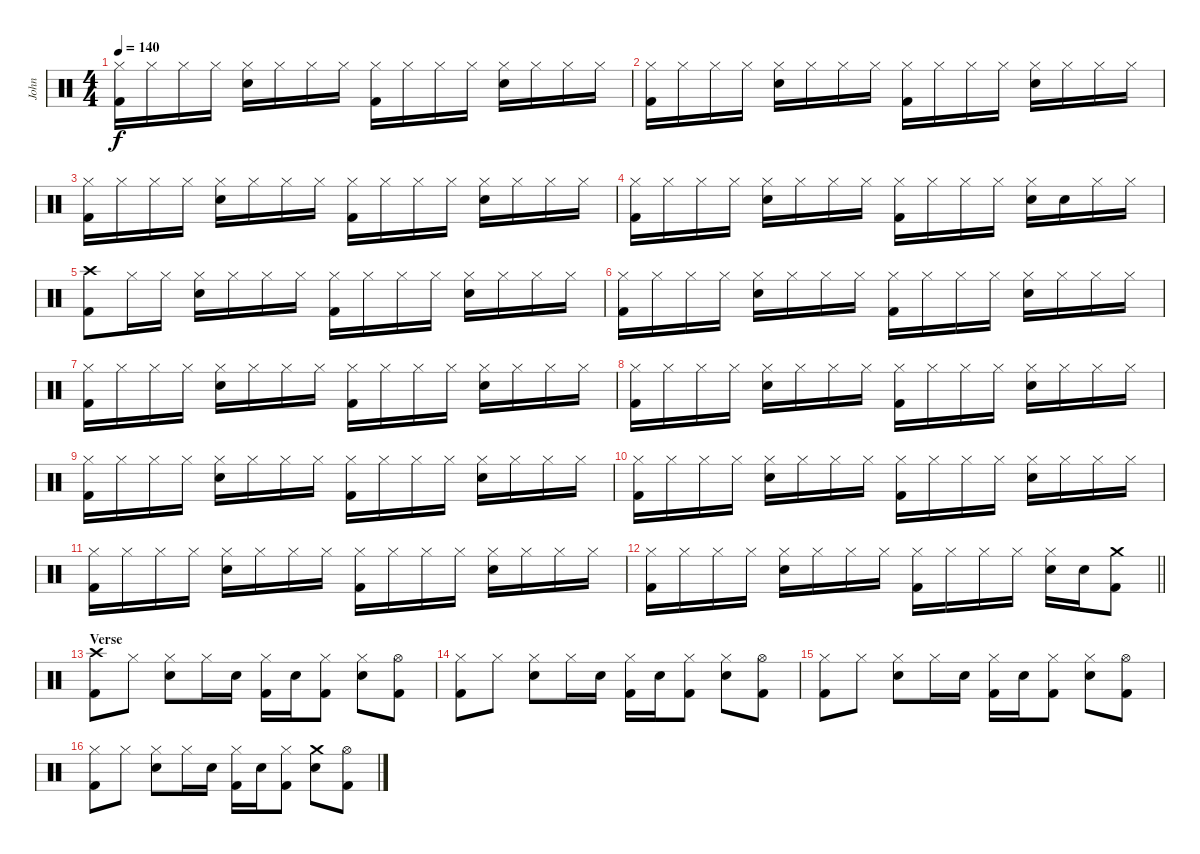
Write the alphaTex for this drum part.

\track ("John" "John") {instrument percussion}
\staff {score}
\articulation defaults
\ts (4 4)
\tempo 140
\clef neutral
\ks c
("Hi-Hat (closed)" "Kick (hit) 2").16{dy f} "Hi-Hat (closed)".16 "Hi-Hat (closed)".16 "Hi-Hat (closed)".16 ("Hi-Hat (closed)" "Electric Snare (hit)").16 "Hi-Hat (closed)".16 "Hi-Hat (closed)".16 "Hi-Hat (closed)".16 ("Hi-Hat (closed)" "Kick (hit) 2").16 "Hi-Hat (closed)".16 "Hi-Hat (closed)".16 "Hi-Hat (closed)".16 ("Hi-Hat (closed)" "Electric Snare (hit)").16 "Hi-Hat (closed)".16 "Hi-Hat (closed)".16 "Hi-Hat (closed)".16 |
("Hi-Hat (closed)" "Kick (hit) 2").16 "Hi-Hat (closed)".16 "Hi-Hat (closed)".16 "Hi-Hat (closed)".16 ("Hi-Hat (closed)" "Electric Snare (hit)").16 "Hi-Hat (closed)".16 "Hi-Hat (closed)".16 "Hi-Hat (closed)".16 ("Hi-Hat (closed)" "Kick (hit) 2").16 "Hi-Hat (closed)".16 "Hi-Hat (closed)".16 "Hi-Hat (closed)".16 ("Hi-Hat (closed)" "Electric Snare (hit)").16 "Hi-Hat (closed)".16 "Hi-Hat (closed)".16 "Hi-Hat (closed)".16 |
("Hi-Hat (closed)" "Kick (hit) 2").16 "Hi-Hat (closed)".16 "Hi-Hat (closed)".16 "Hi-Hat (closed)".16 ("Hi-Hat (closed)" "Electric Snare (hit)").16 "Hi-Hat (closed)".16 "Hi-Hat (closed)".16 "Hi-Hat (closed)".16 ("Hi-Hat (closed)" "Kick (hit) 2").16 "Hi-Hat (closed)".16 "Hi-Hat (closed)".16 "Hi-Hat (closed)".16 ("Hi-Hat (closed)" "Electric Snare (hit)").16 "Hi-Hat (closed)".16 "Hi-Hat (closed)".16 "Hi-Hat (closed)".16 |
("Hi-Hat (closed)" "Kick (hit) 2").16 "Hi-Hat (closed)".16 "Hi-Hat (closed)".16 "Hi-Hat (closed)".16 ("Hi-Hat (closed)" "Electric Snare (hit)").16 "Hi-Hat (closed)".16 "Hi-Hat (closed)".16 "Hi-Hat (closed)".16 ("Hi-Hat (closed)" "Kick (hit) 2").16 "Hi-Hat (closed)".16 "Hi-Hat (closed)".16 "Hi-Hat (closed)".16 ("Hi-Hat (closed)" "Electric Snare (hit)").16 "Electric Snare (hit)".16 "Hi-Hat (closed)".16 "Hi-Hat (closed)".16 |
("Crash high (hit)" "Kick (hit) 2").8 "Hi-Hat (closed)".16 "Hi-Hat (closed)".16 ("Hi-Hat (closed)" "Electric Snare (hit)").16 "Hi-Hat (closed)".16 "Hi-Hat (closed)".16 "Hi-Hat (closed)".16 ("Hi-Hat (closed)" "Kick (hit) 2").16 "Hi-Hat (closed)".16 "Hi-Hat (closed)".16 "Hi-Hat (closed)".16 ("Hi-Hat (closed)" "Electric Snare (hit)").16 "Hi-Hat (closed)".16 "Hi-Hat (closed)".16 "Hi-Hat (closed)".16 |
("Hi-Hat (closed)" "Kick (hit) 2").16 "Hi-Hat (closed)".16 "Hi-Hat (closed)".16 "Hi-Hat (closed)".16 ("Hi-Hat (closed)" "Electric Snare (hit)").16 "Hi-Hat (closed)".16 "Hi-Hat (closed)".16 "Hi-Hat (closed)".16 ("Hi-Hat (closed)" "Kick (hit) 2").16 "Hi-Hat (closed)".16 "Hi-Hat (closed)".16 "Hi-Hat (closed)".16 ("Hi-Hat (closed)" "Electric Snare (hit)").16 "Hi-Hat (closed)".16 "Hi-Hat (closed)".16 "Hi-Hat (closed)".16 |
("Hi-Hat (closed)" "Kick (hit) 2").16 "Hi-Hat (closed)".16 "Hi-Hat (closed)".16 "Hi-Hat (closed)".16 ("Hi-Hat (closed)" "Electric Snare (hit)").16 "Hi-Hat (closed)".16 "Hi-Hat (closed)".16 "Hi-Hat (closed)".16 ("Hi-Hat (closed)" "Kick (hit) 2").16 "Hi-Hat (closed)".16 "Hi-Hat (closed)".16 "Hi-Hat (closed)".16 ("Hi-Hat (closed)" "Electric Snare (hit)").16 "Hi-Hat (closed)".16 "Hi-Hat (closed)".16 "Hi-Hat (closed)".16 |
("Hi-Hat (closed)" "Kick (hit) 2").16 "Hi-Hat (closed)".16 "Hi-Hat (closed)".16 "Hi-Hat (closed)".16 ("Hi-Hat (closed)" "Electric Snare (hit)").16 "Hi-Hat (closed)".16 "Hi-Hat (closed)".16 "Hi-Hat (closed)".16 ("Hi-Hat (closed)" "Kick (hit) 2").16 "Hi-Hat (closed)".16 "Hi-Hat (closed)".16 "Hi-Hat (closed)".16 ("Hi-Hat (closed)" "Electric Snare (hit)").16 "Hi-Hat (closed)".16 "Hi-Hat (closed)".16 "Hi-Hat (closed)".16 |
("Hi-Hat (closed)" "Kick (hit) 2").16 "Hi-Hat (closed)".16 "Hi-Hat (closed)".16 "Hi-Hat (closed)".16 ("Hi-Hat (closed)" "Electric Snare (hit)").16 "Hi-Hat (closed)".16 "Hi-Hat (closed)".16 "Hi-Hat (closed)".16 ("Hi-Hat (closed)" "Kick (hit) 2").16 "Hi-Hat (closed)".16 "Hi-Hat (closed)".16 "Hi-Hat (closed)".16 ("Hi-Hat (closed)" "Electric Snare (hit)").16 "Hi-Hat (closed)".16 "Hi-Hat (closed)".16 "Hi-Hat (closed)".16 |
("Hi-Hat (closed)" "Kick (hit) 2").16 "Hi-Hat (closed)".16 "Hi-Hat (closed)".16 "Hi-Hat (closed)".16 ("Hi-Hat (closed)" "Electric Snare (hit)").16 "Hi-Hat (closed)".16 "Hi-Hat (closed)".16 "Hi-Hat (closed)".16 ("Hi-Hat (closed)" "Kick (hit) 2").16 "Hi-Hat (closed)".16 "Hi-Hat (closed)".16 "Hi-Hat (closed)".16 ("Hi-Hat (closed)" "Electric Snare (hit)").16 "Hi-Hat (closed)".16 "Hi-Hat (closed)".16 "Hi-Hat (closed)".16 |
("Hi-Hat (closed)" "Kick (hit) 2").16 "Hi-Hat (closed)".16 "Hi-Hat (closed)".16 "Hi-Hat (closed)".16 ("Hi-Hat (closed)" "Electric Snare (hit)").16 "Hi-Hat (closed)".16 "Hi-Hat (closed)".16 "Hi-Hat (closed)".16 ("Hi-Hat (closed)" "Kick (hit) 2").16 "Hi-Hat (closed)".16 "Hi-Hat (closed)".16 "Hi-Hat (closed)".16 ("Hi-Hat (closed)" "Electric Snare (hit)").16 "Hi-Hat (closed)".16 "Hi-Hat (closed)".16 "Hi-Hat (closed)".16 |
\barLineRight lightlight
("Hi-Hat (closed)" "Kick (hit) 2").16 "Hi-Hat (closed)".16 "Hi-Hat (closed)".16 "Hi-Hat (closed)".16 ("Hi-Hat (closed)" "Electric Snare (hit)").16 "Hi-Hat (closed)".16 "Hi-Hat (closed)".16 "Hi-Hat (closed)".16 ("Hi-Hat (closed)" "Kick (hit) 2").16 "Hi-Hat (closed)".16 "Hi-Hat (closed)".16 "Hi-Hat (closed)".16 ("Hi-Hat (closed)" "Electric Snare (hit)").16 "Electric Snare (hit)".16 ("Crash medium (hit)" "Kick (hit) 2").8 |
\section ("" "Verse")
("Crash high (hit)" "Kick (hit) 2").8 "Hi-Hat (closed)".8 ("Hi-Hat (closed)" "Electric Snare (hit)").8 "Hi-Hat (closed)".16 "Electric Snare (hit)".16 ("Hi-Hat (closed)" "Kick (hit) 2").16 "Electric Snare (hit)".16 ("Hi-Hat (closed)" "Kick (hit) 2").8 ("Hi-Hat (closed)" "Electric Snare (hit)").8 ("Hi-Hat (open)" "Kick (hit) 2").8 |
("Hi-Hat (closed)" "Kick (hit) 2").8 "Hi-Hat (closed)".8 ("Hi-Hat (closed)" "Electric Snare (hit)").8 "Hi-Hat (closed)".16 "Electric Snare (hit)".16 ("Hi-Hat (closed)" "Kick (hit) 2").16 "Electric Snare (hit)".16 ("Hi-Hat (closed)" "Kick (hit) 2").8 ("Hi-Hat (closed)" "Electric Snare (hit)").8 ("Hi-Hat (open)" "Kick (hit) 2").8 |
("Hi-Hat (closed)" "Kick (hit) 2").8 "Hi-Hat (closed)".8 ("Hi-Hat (closed)" "Electric Snare (hit)").8 "Hi-Hat (closed)".16 "Electric Snare (hit)".16 ("Hi-Hat (closed)" "Kick (hit) 2").16 "Electric Snare (hit)".16 ("Hi-Hat (closed)" "Kick (hit) 2").8 ("Hi-Hat (closed)" "Electric Snare (hit)").8 ("Hi-Hat (open)" "Kick (hit) 2").8 |
("Hi-Hat (closed)" "Kick (hit) 2").8 "Hi-Hat (closed)".8 ("Hi-Hat (closed)" "Electric Snare (hit)").8 "Hi-Hat (closed)".16 "Electric Snare (hit)".16 ("Hi-Hat (closed)" "Kick (hit) 2").16 "Electric Snare (hit)".16 ("Hi-Hat (closed)" "Kick (hit) 2").8 ("Crash medium (hit)" "Electric Snare (hit)").8 ("Hi-Hat (open)" "Kick (hit) 2").8
